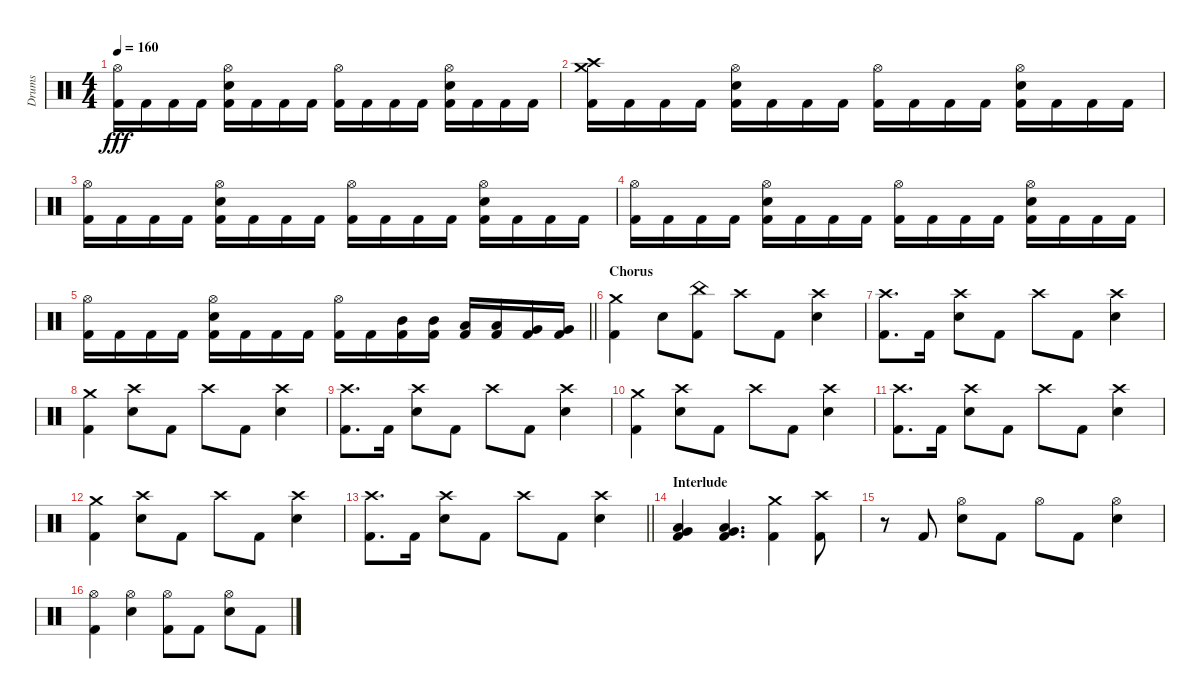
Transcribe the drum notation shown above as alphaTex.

\track ("Drums" "Drums") {instrument percussion}
\staff {score}
\articulation defaults
\ts (4 4)
\tempo 160
\clef neutral
\ks c
("Hi-Hat (open)" "Kick (hit) 2").16{dy fff} "Kick (hit) 2".16 "Kick (hit) 2".16 "Kick (hit) 2".16 ("Snare (hit) 2" "Hi-Hat (open)" "Kick (hit) 2").16 "Kick (hit) 2".16 "Kick (hit) 2".16 "Kick (hit) 2".16 ("Hi-Hat (open)" "Kick (hit) 2").16 "Kick (hit) 2".16 "Kick (hit) 2".16 "Kick (hit) 2".16 ("Snare (hit) 2" "Hi-Hat (open)" "Kick (hit) 2").16 "Kick (hit) 2".16 "Kick (hit) 2".16 "Kick (hit) 2".16 |
("Crash high (hit)" "Crash medium (hit)" "Kick (hit) 2").16 "Kick (hit) 2".16 "Kick (hit) 2".16 "Kick (hit) 2".16 ("Snare (hit) 2" "Hi-Hat (open)" "Kick (hit) 2").16 "Kick (hit) 2".16 "Kick (hit) 2".16 "Kick (hit) 2".16 ("Hi-Hat (open)" "Kick (hit) 2").16 "Kick (hit) 2".16 "Kick (hit) 2".16 "Kick (hit) 2".16 ("Snare (hit) 2" "Hi-Hat (open)" "Kick (hit) 2").16 "Kick (hit) 2".16 "Kick (hit) 2".16 "Kick (hit) 2".16 |
("Hi-Hat (open)" "Kick (hit) 2").16 "Kick (hit) 2".16 "Kick (hit) 2".16 "Kick (hit) 2".16 ("Snare (hit) 2" "Hi-Hat (open)" "Kick (hit) 2").16 "Kick (hit) 2".16 "Kick (hit) 2".16 "Kick (hit) 2".16 ("Hi-Hat (open)" "Kick (hit) 2").16 "Kick (hit) 2".16 "Kick (hit) 2".16 "Kick (hit) 2".16 ("Snare (hit) 2" "Hi-Hat (open)" "Kick (hit) 2").16 "Kick (hit) 2".16 "Kick (hit) 2".16 "Kick (hit) 2".16 |
("Hi-Hat (open)" "Kick (hit) 2").16 "Kick (hit) 2".16 "Kick (hit) 2".16 "Kick (hit) 2".16 ("Snare (hit) 2" "Hi-Hat (open)" "Kick (hit) 2").16 "Kick (hit) 2".16 "Kick (hit) 2".16 "Kick (hit) 2".16 ("Hi-Hat (open)" "Kick (hit) 2").16 "Kick (hit) 2".16 "Kick (hit) 2".16 "Kick (hit) 2".16 ("Snare (hit) 2" "Hi-Hat (open)" "Kick (hit) 2").16 "Kick (hit) 2".16 "Kick (hit) 2".16 "Kick (hit) 2".16 |
\barLineRight lightlight
("Hi-Hat (open)" "Kick (hit) 2").16 "Kick (hit) 2".16 "Kick (hit) 2".16 "Kick (hit) 2".16 ("Snare (hit) 2" "Hi-Hat (open)" "Kick (hit) 2").16 "Kick (hit) 2".16 "Kick (hit) 2".16 "Kick (hit) 2".16 ("Hi-Hat (open)" "Kick (hit) 2").16 "Kick (hit) 2".16 ("Mid Tom (hit)" "Kick (hit) 2").16 ("Mid Tom (hit)" "Kick (hit) 2").16 ("Low Tom (hit)" "Kick (hit) 2").16 ("Low Tom (hit)" "Kick (hit) 2").16 ("Very Low Tom (hit)" "Kick (hit) 2").16 ("Very Low Tom (hit)" "Kick (hit) 2").16 |
\section ("" "Chorus")
("Crash medium (hit)" "Kick (hit) 2").4 "Snare (hit) 2".8 ("China (hit)" "Kick (hit) 2").8 "Crash high (hit)".8 "Kick (hit) 2".8 ("Crash high (hit)" "Snare (hit) 2").4 |
("Crash high (hit)" "Kick (hit) 2").8{d} "Kick (hit) 2".16 ("Crash high (hit)" "Snare (hit) 2").8 "Kick (hit) 2".8 "Crash high (hit)".8 "Kick (hit) 2".8 ("Crash high (hit)" "Snare (hit) 2").4 |
("Crash medium (hit)" "Kick (hit) 2").4 ("Crash high (hit)" "Snare (hit) 2").8 "Kick (hit) 2".8 "Crash high (hit)".8 "Kick (hit) 2".8 ("Crash high (hit)" "Snare (hit) 2").4 |
("Crash high (hit)" "Kick (hit) 2").8{d} "Kick (hit) 2".16 ("Crash high (hit)" "Snare (hit) 2").8 "Kick (hit) 2".8 "Crash high (hit)".8 "Kick (hit) 2".8 ("Crash high (hit)" "Snare (hit) 2").4 |
("Crash medium (hit)" "Kick (hit) 2").4 ("Crash high (hit)" "Snare (hit) 2").8 "Kick (hit) 2".8 "Crash high (hit)".8 "Kick (hit) 2".8 ("Crash high (hit)" "Snare (hit) 2").4 |
("Crash high (hit)" "Kick (hit) 2").8{d} "Kick (hit) 2".16 ("Crash high (hit)" "Snare (hit) 2").8 "Kick (hit) 2".8 "Crash high (hit)".8 "Kick (hit) 2".8 ("Crash high (hit)" "Snare (hit) 2").4 |
("Crash medium (hit)" "Kick (hit) 2").4 ("Crash high (hit)" "Snare (hit) 2").8 "Kick (hit) 2".8 "Crash high (hit)".8 "Kick (hit) 2".8 ("Crash high (hit)" "Snare (hit) 2").4 |
\barLineRight lightlight
("Crash high (hit)" "Kick (hit) 2").8{d} "Kick (hit) 2".16 ("Crash high (hit)" "Snare (hit) 2").8 "Kick (hit) 2".8 "Crash high (hit)".8 "Kick (hit) 2".8 ("Crash high (hit)" "Snare (hit) 2").4 |
\section ("" "Interlude")
("Very Low Tom (hit)" "Low Floor Tom (hit)" "Kick (hit) 2").4 ("Very Low Tom (hit)" "Low Floor Tom (hit)" "Kick (hit) 2").4{d} ("Crash medium (hit)" "Kick (hit) 2").4 ("Crash high (hit)" "Kick (hit) 2").8 |
r.8 "Kick (hit) 2".8 ("Snare (hit) 2" "Hi-Hat (open)").8 "Kick (hit) 2".8 "Hi-Hat (open)".8 "Kick (hit) 2".8 ("Snare (hit) 2" "Hi-Hat (open)").4 |
("Hi-Hat (open)" "Kick (hit) 2").4 ("Snare (hit) 2" "Hi-Hat (open)").4 ("Hi-Hat (open)" "Kick (hit) 2").8 "Kick (hit) 2".8 ("Snare (hit) 2" "Hi-Hat (open)").8 "Kick (hit) 2".8
